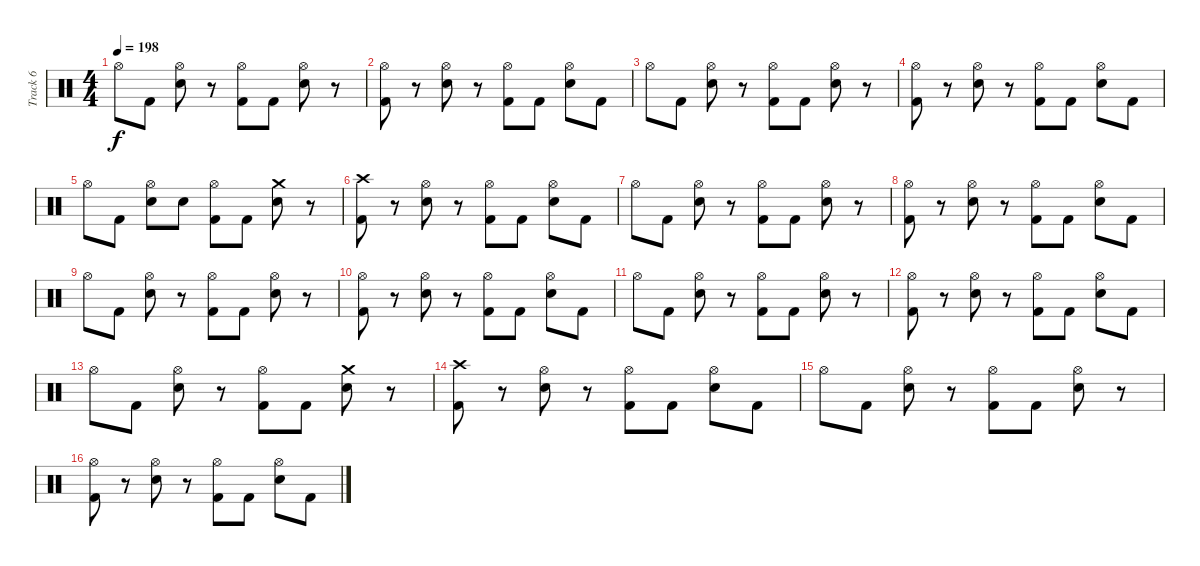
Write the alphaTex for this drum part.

\track ("Track 6" "Track 6") {instrument percussion}
\staff {score}
\articulation defaults
\ts (4 4)
\tempo 198
\clef neutral
\ks c "Hi-Hat (open)".8{dy f} "Kick (hit) 2".8
("Hi-Hat (open)" "Electric Snare (hit)").8 r.8 ("Hi-Hat (open)" "Kick (hit) 2").8 "Kick (hit) 2".8 ("Hi-Hat (open)" "Electric Snare (hit)").8 r.8 |
("Hi-Hat (open)" "Kick (hit) 2").8 r.8 ("Hi-Hat (open)" "Electric Snare (hit)").8 r.8 ("Hi-Hat (open)" "Kick (hit) 2").8 "Kick (hit) 2".8 ("Hi-Hat (open)" "Electric Snare (hit)").8 "Kick (hit) 2".8 |
"Hi-Hat (open)".8 "Kick (hit) 2".8 ("Hi-Hat (open)" "Electric Snare (hit)").8 r.8 ("Hi-Hat (open)" "Kick (hit) 2").8 "Kick (hit) 2".8 ("Hi-Hat (open)" "Electric Snare (hit)").8 r.8 |
("Hi-Hat (open)" "Kick (hit) 2").8 r.8 ("Hi-Hat (open)" "Electric Snare (hit)").8 r.8 ("Hi-Hat (open)" "Kick (hit) 2").8 "Kick (hit) 2".8 ("Hi-Hat (open)" "Electric Snare (hit)").8 "Kick (hit) 2".8 |
"Hi-Hat (open)".8 "Kick (hit) 2".8 ("Hi-Hat (open)" "Electric Snare (hit)").8 "Electric Snare (hit)".8 ("Hi-Hat (open)" "Kick (hit) 2").8 "Kick (hit) 2".8 ("Crash medium (hit)" "Electric Snare (hit)").8 r.8 |
("Crash high (hit)" "Kick (hit) 2").8 r.8 ("Hi-Hat (open)" "Electric Snare (hit)").8 r.8 ("Hi-Hat (open)" "Kick (hit) 2").8 "Kick (hit) 2".8 ("Hi-Hat (open)" "Electric Snare (hit)").8 "Kick (hit) 2".8 |
"Hi-Hat (open)".8 "Kick (hit) 2".8 ("Hi-Hat (open)" "Electric Snare (hit)").8 r.8 ("Hi-Hat (open)" "Kick (hit) 2").8 "Kick (hit) 2".8 ("Hi-Hat (open)" "Electric Snare (hit)").8 r.8 |
("Hi-Hat (open)" "Kick (hit) 2").8 r.8 ("Hi-Hat (open)" "Electric Snare (hit)").8 r.8 ("Hi-Hat (open)" "Kick (hit) 2").8 "Kick (hit) 2".8 ("Hi-Hat (open)" "Electric Snare (hit)").8 "Kick (hit) 2".8 |
"Hi-Hat (open)".8 "Kick (hit) 2".8 ("Hi-Hat (open)" "Electric Snare (hit)").8 r.8 ("Hi-Hat (open)" "Kick (hit) 2").8 "Kick (hit) 2".8 ("Hi-Hat (open)" "Electric Snare (hit)").8 r.8 |
("Hi-Hat (open)" "Kick (hit) 2").8 r.8 ("Hi-Hat (open)" "Electric Snare (hit)").8 r.8 ("Hi-Hat (open)" "Kick (hit) 2").8 "Kick (hit) 2".8 ("Hi-Hat (open)" "Electric Snare (hit)").8 "Kick (hit) 2".8 |
"Hi-Hat (open)".8 "Kick (hit) 2".8 ("Hi-Hat (open)" "Electric Snare (hit)").8 r.8 ("Hi-Hat (open)" "Kick (hit) 2").8 "Kick (hit) 2".8 ("Hi-Hat (open)" "Electric Snare (hit)").8 r.8 |
("Hi-Hat (open)" "Kick (hit) 2").8 r.8 ("Hi-Hat (open)" "Electric Snare (hit)").8 r.8 ("Hi-Hat (open)" "Kick (hit) 2").8 "Kick (hit) 2".8 ("Hi-Hat (open)" "Electric Snare (hit)").8 "Kick (hit) 2".8 |
"Hi-Hat (open)".8 "Kick (hit) 2".8 ("Hi-Hat (open)" "Electric Snare (hit)").8 r.8 ("Hi-Hat (open)" "Kick (hit) 2").8 "Kick (hit) 2".8 ("Crash medium (hit)" "Electric Snare (hit)").8 r.8 |
("Crash high (hit)" "Kick (hit) 2").8 r.8 ("Hi-Hat (open)" "Electric Snare (hit)").8 r.8 ("Hi-Hat (open)" "Kick (hit) 2").8 "Kick (hit) 2".8 ("Hi-Hat (open)" "Electric Snare (hit)").8 "Kick (hit) 2".8 |
"Hi-Hat (open)".8 "Kick (hit) 2".8 ("Hi-Hat (open)" "Electric Snare (hit)").8 r.8 ("Hi-Hat (open)" "Kick (hit) 2").8 "Kick (hit) 2".8 ("Hi-Hat (open)" "Electric Snare (hit)").8 r.8 |
("Hi-Hat (open)" "Kick (hit) 2").8 r.8 ("Hi-Hat (open)" "Electric Snare (hit)").8 r.8 ("Hi-Hat (open)" "Kick (hit) 2").8 "Kick (hit) 2".8 ("Hi-Hat (open)" "Electric Snare (hit)").8 "Kick (hit) 2".8
